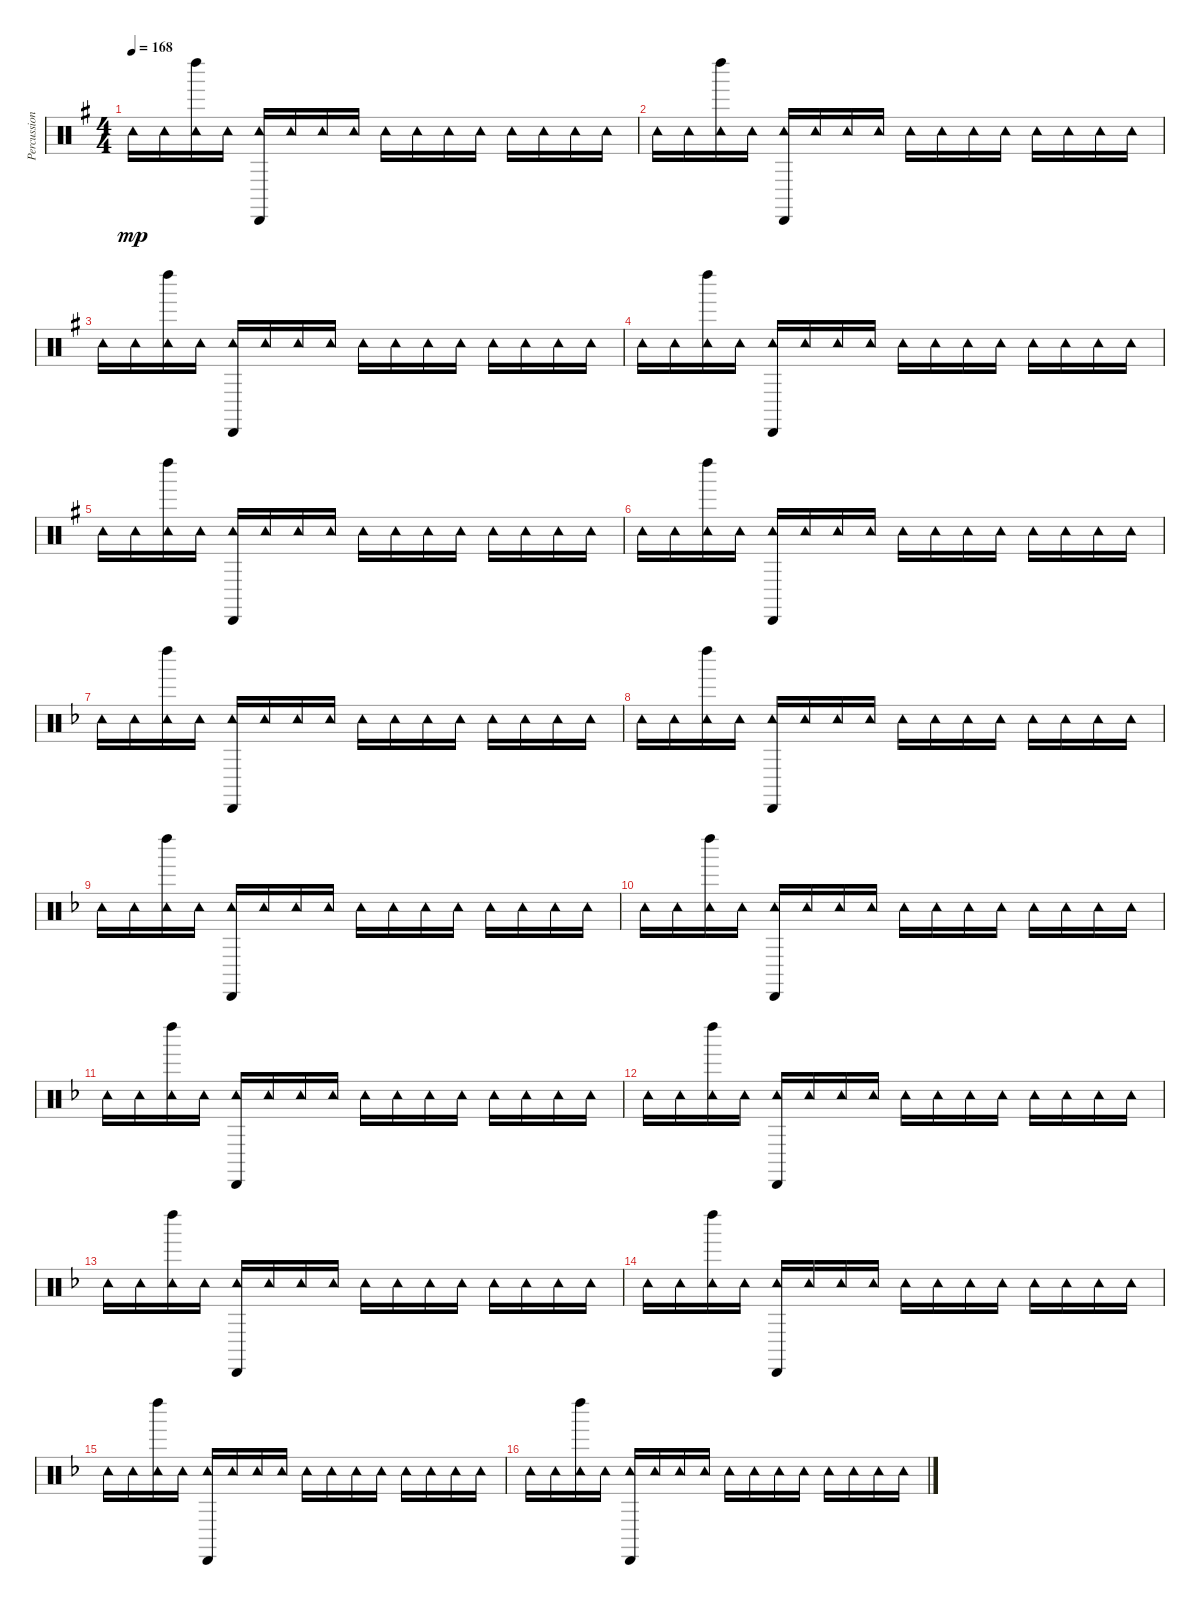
\track ("Percussions" "Percussion") {instrument percussion}
\staff {score}
\articulation defaults
\ts (4 4)
\tempo 168
\clef neutral
\ks g "Tambourine (hit)".16{dy mp} "Tambourine (hit)".16
("Left Maraca (hit)" "Tambourine (hit)").16 "Tambourine (hit)".16 ("Cabasa (hit)" "Tambourine (hit)").16 "Tambourine (hit)".16 "Tambourine (hit)".16 "Tambourine (hit)".16 "Tambourine (hit)".16 "Tambourine (hit)".16 "Tambourine (hit)".16 "Tambourine (hit)".16 "Tambourine (hit)".16 "Tambourine (hit)".16 "Tambourine (hit)".16 "Tambourine (hit)".16 |
"Tambourine (hit)".16 "Tambourine (hit)".16 ("Left Maraca (hit)" "Tambourine (hit)").16 "Tambourine (hit)".16 ("Cabasa (hit)" "Tambourine (hit)").16 "Tambourine (hit)".16 "Tambourine (hit)".16 "Tambourine (hit)".16 "Tambourine (hit)".16 "Tambourine (hit)".16 "Tambourine (hit)".16 "Tambourine (hit)".16 "Tambourine (hit)".16 "Tambourine (hit)".16 "Tambourine (hit)".16 "Tambourine (hit)".16 |
"Tambourine (hit)".16 "Tambourine (hit)".16 ("Left Maraca (hit)" "Tambourine (hit)").16 "Tambourine (hit)".16 ("Cabasa (hit)" "Tambourine (hit)").16 "Tambourine (hit)".16 "Tambourine (hit)".16 "Tambourine (hit)".16 "Tambourine (hit)".16 "Tambourine (hit)".16 "Tambourine (hit)".16 "Tambourine (hit)".16 "Tambourine (hit)".16 "Tambourine (hit)".16 "Tambourine (hit)".16 "Tambourine (hit)".16 |
"Tambourine (hit)".16 "Tambourine (hit)".16 ("Left Maraca (hit)" "Tambourine (hit)").16 "Tambourine (hit)".16 ("Cabasa (hit)" "Tambourine (hit)").16 "Tambourine (hit)".16 "Tambourine (hit)".16 "Tambourine (hit)".16 "Tambourine (hit)".16 "Tambourine (hit)".16 "Tambourine (hit)".16 "Tambourine (hit)".16 "Tambourine (hit)".16 "Tambourine (hit)".16 "Tambourine (hit)".16 "Tambourine (hit)".16 |
"Tambourine (hit)".16 "Tambourine (hit)".16 ("Left Maraca (hit)" "Tambourine (hit)").16 "Tambourine (hit)".16 ("Cabasa (hit)" "Tambourine (hit)").16 "Tambourine (hit)".16 "Tambourine (hit)".16 "Tambourine (hit)".16 "Tambourine (hit)".16 "Tambourine (hit)".16 "Tambourine (hit)".16 "Tambourine (hit)".16 "Tambourine (hit)".16 "Tambourine (hit)".16 "Tambourine (hit)".16 "Tambourine (hit)".16 |
"Tambourine (hit)".16 "Tambourine (hit)".16 ("Left Maraca (hit)" "Tambourine (hit)").16 "Tambourine (hit)".16 ("Cabasa (hit)" "Tambourine (hit)").16 "Tambourine (hit)".16 "Tambourine (hit)".16 "Tambourine (hit)".16 "Tambourine (hit)".16 "Tambourine (hit)".16 "Tambourine (hit)".16 "Tambourine (hit)".16 "Tambourine (hit)".16 "Tambourine (hit)".16 "Tambourine (hit)".16 "Tambourine (hit)".16 |
\ks f "Tambourine (hit)".16 "Tambourine (hit)".16
("Left Maraca (hit)" "Tambourine (hit)").16 "Tambourine (hit)".16 ("Cabasa (hit)" "Tambourine (hit)").16 "Tambourine (hit)".16 "Tambourine (hit)".16 "Tambourine (hit)".16 "Tambourine (hit)".16 "Tambourine (hit)".16 "Tambourine (hit)".16 "Tambourine (hit)".16 "Tambourine (hit)".16 "Tambourine (hit)".16 "Tambourine (hit)".16 "Tambourine (hit)".16 |
"Tambourine (hit)".16 "Tambourine (hit)".16 ("Left Maraca (hit)" "Tambourine (hit)").16 "Tambourine (hit)".16 ("Cabasa (hit)" "Tambourine (hit)").16 "Tambourine (hit)".16 "Tambourine (hit)".16 "Tambourine (hit)".16 "Tambourine (hit)".16 "Tambourine (hit)".16 "Tambourine (hit)".16 "Tambourine (hit)".16 "Tambourine (hit)".16 "Tambourine (hit)".16 "Tambourine (hit)".16 "Tambourine (hit)".16 |
"Tambourine (hit)".16 "Tambourine (hit)".16 ("Left Maraca (hit)" "Tambourine (hit)").16 "Tambourine (hit)".16 ("Cabasa (hit)" "Tambourine (hit)").16 "Tambourine (hit)".16 "Tambourine (hit)".16 "Tambourine (hit)".16 "Tambourine (hit)".16 "Tambourine (hit)".16 "Tambourine (hit)".16 "Tambourine (hit)".16 "Tambourine (hit)".16 "Tambourine (hit)".16 "Tambourine (hit)".16 "Tambourine (hit)".16 |
"Tambourine (hit)".16 "Tambourine (hit)".16 ("Left Maraca (hit)" "Tambourine (hit)").16 "Tambourine (hit)".16 ("Cabasa (hit)" "Tambourine (hit)").16 "Tambourine (hit)".16 "Tambourine (hit)".16 "Tambourine (hit)".16 "Tambourine (hit)".16 "Tambourine (hit)".16 "Tambourine (hit)".16 "Tambourine (hit)".16 "Tambourine (hit)".16 "Tambourine (hit)".16 "Tambourine (hit)".16 "Tambourine (hit)".16 |
"Tambourine (hit)".16 "Tambourine (hit)".16 ("Left Maraca (hit)" "Tambourine (hit)").16 "Tambourine (hit)".16 ("Cabasa (hit)" "Tambourine (hit)").16 "Tambourine (hit)".16 "Tambourine (hit)".16 "Tambourine (hit)".16 "Tambourine (hit)".16 "Tambourine (hit)".16 "Tambourine (hit)".16 "Tambourine (hit)".16 "Tambourine (hit)".16 "Tambourine (hit)".16 "Tambourine (hit)".16 "Tambourine (hit)".16 |
"Tambourine (hit)".16 "Tambourine (hit)".16 ("Left Maraca (hit)" "Tambourine (hit)").16 "Tambourine (hit)".16 ("Cabasa (hit)" "Tambourine (hit)").16 "Tambourine (hit)".16 "Tambourine (hit)".16 "Tambourine (hit)".16 "Tambourine (hit)".16 "Tambourine (hit)".16 "Tambourine (hit)".16 "Tambourine (hit)".16 "Tambourine (hit)".16 "Tambourine (hit)".16 "Tambourine (hit)".16 "Tambourine (hit)".16 |
"Tambourine (hit)".16 "Tambourine (hit)".16 ("Left Maraca (hit)" "Tambourine (hit)").16 "Tambourine (hit)".16 ("Cabasa (hit)" "Tambourine (hit)").16 "Tambourine (hit)".16 "Tambourine (hit)".16 "Tambourine (hit)".16 "Tambourine (hit)".16 "Tambourine (hit)".16 "Tambourine (hit)".16 "Tambourine (hit)".16 "Tambourine (hit)".16 "Tambourine (hit)".16 "Tambourine (hit)".16 "Tambourine (hit)".16 |
"Tambourine (hit)".16 "Tambourine (hit)".16 ("Left Maraca (hit)" "Tambourine (hit)").16 "Tambourine (hit)".16 ("Cabasa (hit)" "Tambourine (hit)").16 "Tambourine (hit)".16 "Tambourine (hit)".16 "Tambourine (hit)".16 "Tambourine (hit)".16 "Tambourine (hit)".16 "Tambourine (hit)".16 "Tambourine (hit)".16 "Tambourine (hit)".16 "Tambourine (hit)".16 "Tambourine (hit)".16 "Tambourine (hit)".16 |
"Tambourine (hit)".16 "Tambourine (hit)".16 ("Left Maraca (hit)" "Tambourine (hit)").16 "Tambourine (hit)".16 ("Cabasa (hit)" "Tambourine (hit)").16 "Tambourine (hit)".16 "Tambourine (hit)".16 "Tambourine (hit)".16 "Tambourine (hit)".16 "Tambourine (hit)".16 "Tambourine (hit)".16 "Tambourine (hit)".16 "Tambourine (hit)".16 "Tambourine (hit)".16 "Tambourine (hit)".16 "Tambourine (hit)".16 |
"Tambourine (hit)".16 "Tambourine (hit)".16 ("Left Maraca (hit)" "Tambourine (hit)").16 "Tambourine (hit)".16 ("Cabasa (hit)" "Tambourine (hit)").16 "Tambourine (hit)".16 "Tambourine (hit)".16 "Tambourine (hit)".16 "Tambourine (hit)".16 "Tambourine (hit)".16 "Tambourine (hit)".16 "Tambourine (hit)".16 "Tambourine (hit)".16 "Tambourine (hit)".16 "Tambourine (hit)".16 "Tambourine (hit)".16
